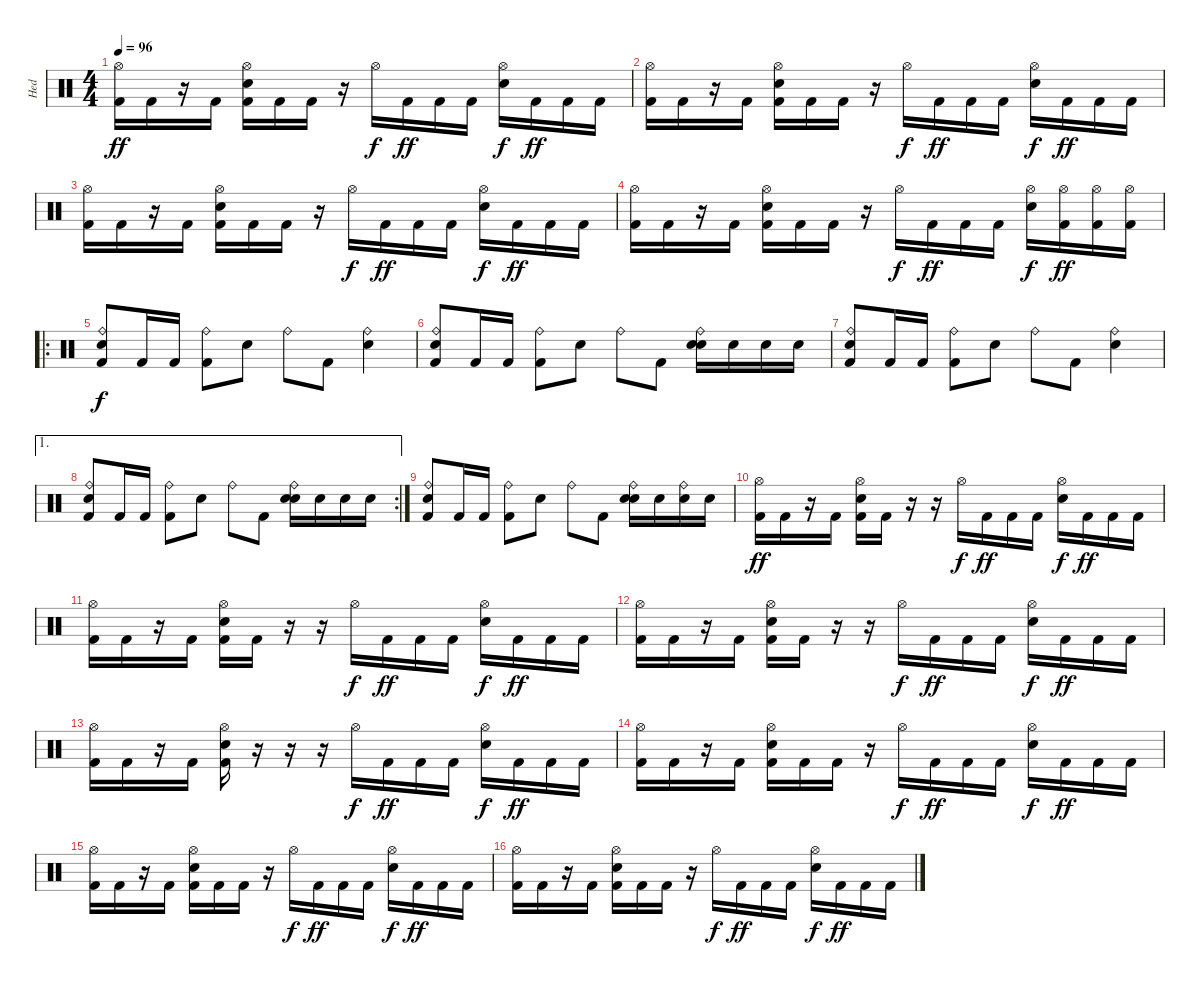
\track ("Hed" "Hed") {instrument percussion}
\staff {score}
\articulation defaults
\ts (4 4)
\tempo 96
\clef neutral
\ks c
("Hi-Hat (open)" "Kick (hit) 2").16{dy ff} "Kick (hit) 2".16 r.16 "Kick (hit) 2".16 ("Hi-Hat (open)" "Snare (hit) 2" "Kick (hit) 2").16 "Kick (hit) 2".16 "Kick (hit) 2".16 r.16 "Hi-Hat (open)".16{dy f} "Kick (hit) 2".16{dy ff} "Kick (hit) 2".16 "Kick (hit) 2".16 ("Hi-Hat (open)" "Snare (hit) 2").16{dy f} "Kick (hit) 2".16{dy ff} "Kick (hit) 2".16 "Kick (hit) 2".16 |
("Hi-Hat (open)" "Kick (hit) 2").16 "Kick (hit) 2".16 r.16 "Kick (hit) 2".16 ("Hi-Hat (open)" "Snare (hit) 2" "Kick (hit) 2").16 "Kick (hit) 2".16 "Kick (hit) 2".16 r.16 "Hi-Hat (open)".16{dy f} "Kick (hit) 2".16{dy ff} "Kick (hit) 2".16 "Kick (hit) 2".16 ("Hi-Hat (open)" "Snare (hit) 2").16{dy f} "Kick (hit) 2".16{dy ff} "Kick (hit) 2".16 "Kick (hit) 2".16 |
("Hi-Hat (open)" "Kick (hit) 2").16 "Kick (hit) 2".16 r.16 "Kick (hit) 2".16 ("Hi-Hat (open)" "Snare (hit) 2" "Kick (hit) 2").16 "Kick (hit) 2".16 "Kick (hit) 2".16 r.16 "Hi-Hat (open)".16{dy f} "Kick (hit) 2".16{dy ff} "Kick (hit) 2".16 "Kick (hit) 2".16 ("Hi-Hat (open)" "Snare (hit) 2").16{dy f} "Kick (hit) 2".16{dy ff} "Kick (hit) 2".16 "Kick (hit) 2".16 |
("Hi-Hat (open)" "Kick (hit) 2").16 "Kick (hit) 2".16 r.16 "Kick (hit) 2".16 ("Hi-Hat (open)" "Snare (hit) 2" "Kick (hit) 2").16 "Kick (hit) 2".16 "Kick (hit) 2".16 r.16 "Hi-Hat (open)".16{dy f} "Kick (hit) 2".16{dy ff} "Kick (hit) 2".16 "Kick (hit) 2".16 ("Hi-Hat (open)" "Snare (hit) 2").16{dy f} ("Hi-Hat (open)" "Kick (hit) 2").16{dy ff} ("Hi-Hat (open)" "Kick (hit) 2").16 ("Hi-Hat (open)" "Kick (hit) 2").16 |
\ro
("Ride (bell)" "Electric Snare (hit)" "Kick (hit) 2").8{dy f} "Kick (hit) 2".16 "Kick (hit) 2".16 ("Ride (bell)" "Kick (hit) 2").8 "Electric Snare (hit)".8 "Ride (bell)".8 "Kick (hit) 2".8 ("Ride (bell)" "Electric Snare (hit)").4 |
("Ride (bell)" "Electric Snare (hit)" "Kick (hit) 2").8 "Kick (hit) 2".16 "Kick (hit) 2".16 ("Ride (bell)" "Kick (hit) 2").8 "Electric Snare (hit)".8 "Ride (bell)".8 "Kick (hit) 2".8 ("Ride (bell)" "Snare (hit) 2" "Electric Snare (hit)").16 "Snare (hit) 2".16 "Snare (hit) 2".16 "Snare (hit) 2".16 |
("Ride (bell)" "Electric Snare (hit)" "Kick (hit) 2").8 "Kick (hit) 2".16 "Kick (hit) 2".16 ("Ride (bell)" "Kick (hit) 2").8 "Electric Snare (hit)".8 "Ride (bell)".8 "Kick (hit) 2".8 ("Ride (bell)" "Electric Snare (hit)").4 |
\ae 1
\rc 2
("Ride (bell)" "Electric Snare (hit)" "Kick (hit) 2").8 "Kick (hit) 2".16 "Kick (hit) 2".16 ("Ride (bell)" "Kick (hit) 2").8 "Electric Snare (hit)".8 "Ride (bell)".8 "Kick (hit) 2".8 ("Ride (bell)" "Snare (hit) 2" "Electric Snare (hit)").16 "Snare (hit) 2".16 "Snare (hit) 2".16 "Snare (hit) 2".16 |
("Ride (bell)" "Electric Snare (hit)" "Kick (hit) 2").8 "Kick (hit) 2".16 "Kick (hit) 2".16 ("Ride (bell)" "Kick (hit) 2").8 "Electric Snare (hit)".8 "Ride (bell)".8 "Kick (hit) 2".8 ("Ride (bell)" "Snare (hit) 2" "Electric Snare (hit)").16 "Snare (hit) 2".16 ("Ride (bell)" "Snare (hit) 2").16 "Snare (hit) 2".16 |
("Hi-Hat (open)" "Kick (hit) 2").16{dy ff} "Kick (hit) 2".16 r.16 "Kick (hit) 2".16 ("Hi-Hat (open)" "Snare (hit) 2" "Kick (hit) 2").16 "Kick (hit) 2".16 r.16 r.16 "Hi-Hat (open)".16{dy f} "Kick (hit) 2".16{dy ff} "Kick (hit) 2".16 "Kick (hit) 2".16 ("Hi-Hat (open)" "Snare (hit) 2").16{dy f} "Kick (hit) 2".16{dy ff} "Kick (hit) 2".16 "Kick (hit) 2".16 |
("Hi-Hat (open)" "Kick (hit) 2").16 "Kick (hit) 2".16 r.16 "Kick (hit) 2".16 ("Hi-Hat (open)" "Snare (hit) 2" "Kick (hit) 2").16 "Kick (hit) 2".16 r.16 r.16 "Hi-Hat (open)".16{dy f} "Kick (hit) 2".16{dy ff} "Kick (hit) 2".16 "Kick (hit) 2".16 ("Hi-Hat (open)" "Snare (hit) 2").16{dy f} "Kick (hit) 2".16{dy ff} "Kick (hit) 2".16 "Kick (hit) 2".16 |
("Hi-Hat (open)" "Kick (hit) 2").16 "Kick (hit) 2".16 r.16 "Kick (hit) 2".16 ("Hi-Hat (open)" "Snare (hit) 2" "Kick (hit) 2").16 "Kick (hit) 2".16 r.16 r.16 "Hi-Hat (open)".16{dy f} "Kick (hit) 2".16{dy ff} "Kick (hit) 2".16 "Kick (hit) 2".16 ("Hi-Hat (open)" "Snare (hit) 2").16{dy f} "Kick (hit) 2".16{dy ff} "Kick (hit) 2".16 "Kick (hit) 2".16 |
("Hi-Hat (open)" "Kick (hit) 2").16 "Kick (hit) 2".16 r.16 "Kick (hit) 2".16 ("Hi-Hat (open)" "Snare (hit) 2" "Kick (hit) 2").16 r.16 r.16 r.16 "Hi-Hat (open)".16{dy f} "Kick (hit) 2".16{dy ff} "Kick (hit) 2".16 "Kick (hit) 2".16 ("Hi-Hat (open)" "Snare (hit) 2").16{dy f} "Kick (hit) 2".16{dy ff} "Kick (hit) 2".16 "Kick (hit) 2".16 |
("Hi-Hat (open)" "Kick (hit) 2").16 "Kick (hit) 2".16 r.16 "Kick (hit) 2".16 ("Hi-Hat (open)" "Snare (hit) 2" "Kick (hit) 2").16 "Kick (hit) 2".16 "Kick (hit) 2".16 r.16 "Hi-Hat (open)".16{dy f} "Kick (hit) 2".16{dy ff} "Kick (hit) 2".16 "Kick (hit) 2".16 ("Hi-Hat (open)" "Snare (hit) 2").16{dy f} "Kick (hit) 2".16{dy ff} "Kick (hit) 2".16 "Kick (hit) 2".16 |
("Hi-Hat (open)" "Kick (hit) 2").16 "Kick (hit) 2".16 r.16 "Kick (hit) 2".16 ("Hi-Hat (open)" "Snare (hit) 2" "Kick (hit) 2").16 "Kick (hit) 2".16 "Kick (hit) 2".16 r.16 "Hi-Hat (open)".16{dy f} "Kick (hit) 2".16{dy ff} "Kick (hit) 2".16 "Kick (hit) 2".16 ("Hi-Hat (open)" "Snare (hit) 2").16{dy f} "Kick (hit) 2".16{dy ff} "Kick (hit) 2".16 "Kick (hit) 2".16 |
("Hi-Hat (open)" "Kick (hit) 2").16 "Kick (hit) 2".16 r.16 "Kick (hit) 2".16 ("Hi-Hat (open)" "Snare (hit) 2" "Kick (hit) 2").16 "Kick (hit) 2".16 "Kick (hit) 2".16 r.16 "Hi-Hat (open)".16{dy f} "Kick (hit) 2".16{dy ff} "Kick (hit) 2".16 "Kick (hit) 2".16 ("Hi-Hat (open)" "Snare (hit) 2").16{dy f} "Kick (hit) 2".16{dy ff} "Kick (hit) 2".16 "Kick (hit) 2".16
